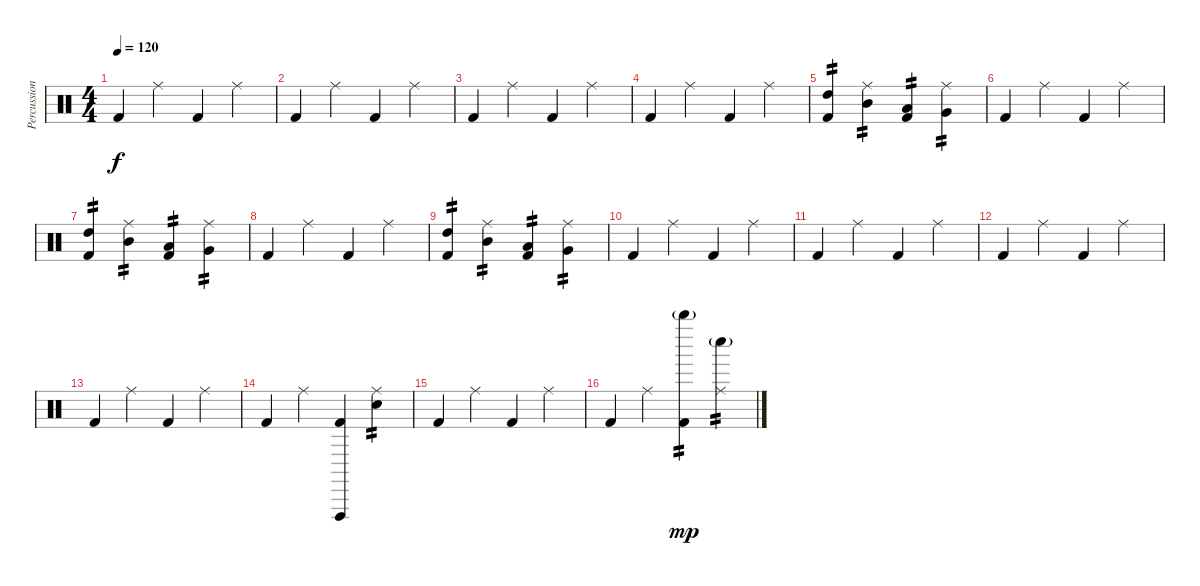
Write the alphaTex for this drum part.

\track ("Percussions" "Percussion") {instrument percussion}
\staff {score}
\articulation defaults
\ts (4 4)
\tempo 120
\clef neutral
\ks c "Kick (hit) 2".4{dy f} "Ride (middle)".4 "Kick (hit) 2".4 "Ride (middle)".4
|
"Kick (hit) 2".4 "Ride (middle)".4 "Kick (hit) 2".4 "Ride (middle)".4 |
"Kick (hit) 2".4 "Ride (middle)".4 "Kick (hit) 2".4 "Ride (middle)".4 |
"Kick (hit) 2".4 "Ride (middle)".4 "Kick (hit) 2".4 "Ride (middle)".4 |
("High Tom (hit)" "Kick (hit) 2").4{tp 2} ("Mid Tom (hit)" "Ride (middle)").4{tp 2} ("Low Tom (hit)" "Kick (hit) 2").4{tp 2} ("Very Low Tom (hit)" "Ride (middle)").4{tp 2} |
"Kick (hit) 2".4 "Ride (middle)".4 "Kick (hit) 2".4 "Ride (middle)".4 |
("High Tom (hit)" "Kick (hit) 2").4{tp 2} ("Mid Tom (hit)" "Ride (middle)").4{tp 2} ("Low Tom (hit)" "Kick (hit) 2").4{tp 2} ("Very Low Tom (hit)" "Ride (middle)").4{tp 2} |
"Kick (hit) 2".4 "Ride (middle)".4 "Kick (hit) 2".4 "Ride (middle)".4 |
("High Tom (hit)" "Kick (hit) 2").4{tp 2} ("Mid Tom (hit)" "Ride (middle)").4{tp 2} ("Low Tom (hit)" "Kick (hit) 2").4{tp 2} ("Very Low Tom (hit)" "Ride (middle)").4{tp 2} |
"Kick (hit) 2".4 "Ride (middle)".4 "Kick (hit) 2".4 "Ride (middle)".4 |
"Kick (hit) 2".4 "Ride (middle)".4 "Kick (hit) 2".4 "Ride (middle)".4 |
"Kick (hit) 2".4 "Ride (middle)".4 "Kick (hit) 2".4 "Ride (middle)".4 |
"Kick (hit) 2".4 "Ride (middle)".4 "Kick (hit) 2".4 "Ride (middle)".4 |
"Kick (hit) 2".4 "Ride (middle)".4 ("Vibraslap (hit)" "Kick (hit) 2").4 ("Hand Clap (hit)" "Ride (middle)").4{tp 2} |
"Kick (hit) 2".4 "Ride (middle)".4 "Kick (hit) 2".4 "Ride (middle)".4 |
"Kick (hit) 2".4 "Ride (middle)".4 ("Whistle high (hit)"{g} "Kick (hit) 2").4{tp 2 dy mp} ("Whistle low (hit)"{g} "Ride (middle)").4{tp 2}
